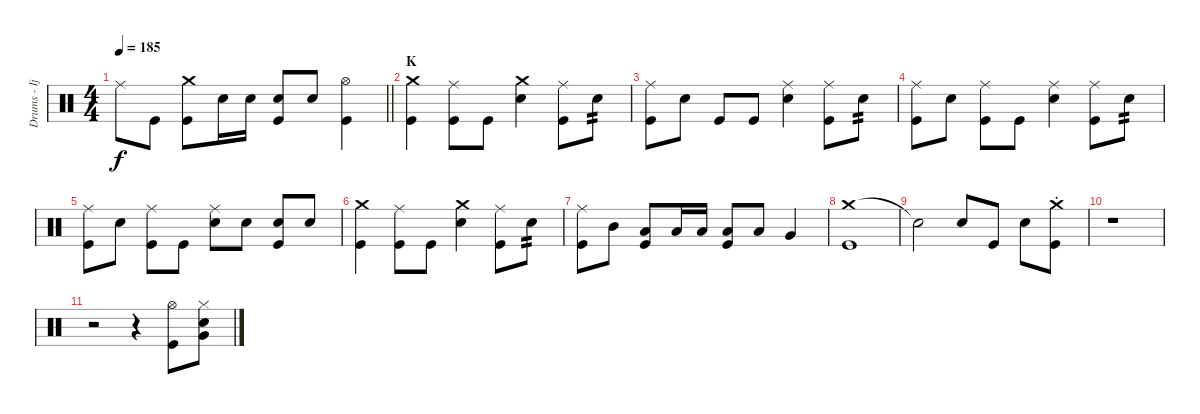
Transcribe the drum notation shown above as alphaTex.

\track ("Drums - Ijichi" "Drums - Ij") {instrument percussion}
\staff {score}
\articulation defaults
\ts (4 4)
\tempo 185
\clef neutral
\barLineRight lightlight
\ks c "Ride (middle)".8{dy f} "Kick (hit)".8
("Crash medium (hit)" "Kick (hit)").8 "Electric Snare (hit)".16 "Electric Snare (hit)".16 ("Electric Snare (hit)" "Kick (hit)").8 "Electric Snare (hit)".8 ("Hi-Hat (open)" "Kick (hit)").4 |
\section ("" "K")
("Crash medium (hit)" "Kick (hit)").4 ("Ride (middle)" "Kick (hit)").8 "Kick (hit)".8 ("Crash medium (hit)" "Electric Snare (hit)").4 ("Ride (middle)" "Kick (hit)").8 "Electric Snare (hit)".8{tp 2} |
("Ride (middle)" "Kick (hit)").8 "Electric Snare (hit)".8 "Kick (hit)".8 "Kick (hit)".8 ("Ride (middle)" "Electric Snare (hit)").4 ("Ride (middle)" "Kick (hit)").8 "Electric Snare (hit)".8{tp 2} |
("Ride (middle)" "Kick (hit)").8 "Electric Snare (hit)".8 ("Ride (middle)" "Kick (hit)").8 "Kick (hit)".8 ("Ride (middle)" "Electric Snare (hit)").4 ("Ride (middle)" "Kick (hit)").8 "Electric Snare (hit)".8{tp 2} |
("Ride (middle)" "Kick (hit)").8 "Electric Snare (hit)".8 ("Ride (middle)" "Kick (hit)").8 "Kick (hit)".8 ("Ride (middle)" "Electric Snare (hit)").8 "Electric Snare (hit)".8 ("Electric Snare (hit)" "Kick (hit)").8 "Electric Snare (hit)".8 |
("Crash medium (hit)" "Kick (hit)").4 ("Ride (middle)" "Kick (hit)").8 "Kick (hit)".8 ("Crash medium (hit)" "Electric Snare (hit)").4 ("Ride (middle)" "Kick (hit)").8 "Electric Snare (hit)".8{tp 2} |
("Ride (middle)" "Kick (hit)").8 "Mid Tom (hit)".8 ("Low Tom (hit)" "Kick (hit)").8 "Low Tom (hit)".16 "Low Tom (hit)".16 ("Low Tom (hit)" "Kick (hit)").8 "Low Tom (hit)".8 "Very Low Tom (hit)".4 |
("Crash medium (hit)" "Kick (hit)").1 |
"Snare (hit)"{t}.2 "Electric Snare (hit)".8 "Kick (hit)".8 "Electric Snare (hit)".8 ("Crash medium (hit)"{st} "Kick (hit)").8 |
r.1 |
r.2 r.4 ("Hi-Hat (open)" "Kick (hit)").8 ("Hi-Hat (closed)" "Electric Snare (hit)" "Very Low Tom (hit)").8
